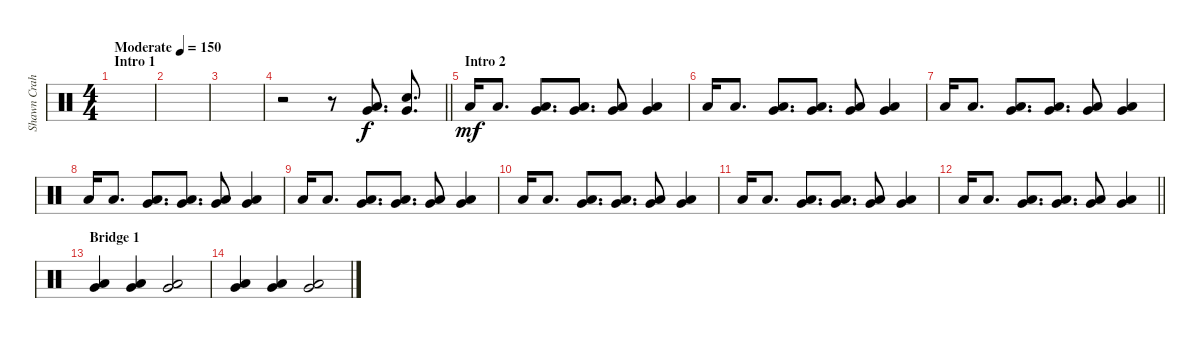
\track ("Shawn Crahan" "Shawn Crah") {instrument percussion}
\staff {score}
\articulation defaults
\ts (4 4)
\section ("" "Intro 1")
\tempo (150 "Moderate")
\clef neutral
\ks c
|
|
|
\barLineRight lightlight
r.2 r.8 ("Very Low Tom (hit)" "Low Floor Tom (hit)").8{d} ("Very Low Tom (hit)" "Snare (hit)").8{d} |
\section ("" "Intro 2")
"Low Floor Tom (hit)".16{dy mf} "Low Floor Tom (hit)".8{d} ("Very Low Tom (hit)" "Low Floor Tom (hit)").8{d} ("Very Low Tom (hit)" "Low Floor Tom (hit)").8{d} ("Very Low Tom (hit)" "Low Floor Tom (hit)").8 ("Very Low Tom (hit)" "Low Floor Tom (hit)").4 |
"Low Floor Tom (hit)".16 "Low Floor Tom (hit)".8{d} ("Very Low Tom (hit)" "Low Floor Tom (hit)").8{d} ("Very Low Tom (hit)" "Low Floor Tom (hit)").8{d} ("Very Low Tom (hit)" "Low Floor Tom (hit)").8 ("Very Low Tom (hit)" "Low Floor Tom (hit)").4 |
"Low Floor Tom (hit)".16 "Low Floor Tom (hit)".8{d} ("Very Low Tom (hit)" "Low Floor Tom (hit)").8{d} ("Very Low Tom (hit)" "Low Floor Tom (hit)").8{d} ("Very Low Tom (hit)" "Low Floor Tom (hit)").8 ("Very Low Tom (hit)" "Low Floor Tom (hit)").4 |
"Low Floor Tom (hit)".16 "Low Floor Tom (hit)".8{d} ("Very Low Tom (hit)" "Low Floor Tom (hit)").8{d} ("Very Low Tom (hit)" "Low Floor Tom (hit)").8{d} ("Very Low Tom (hit)" "Low Floor Tom (hit)").8 ("Very Low Tom (hit)" "Low Floor Tom (hit)").4 |
"Low Floor Tom (hit)".16 "Low Floor Tom (hit)".8{d} ("Very Low Tom (hit)" "Low Floor Tom (hit)").8{d} ("Very Low Tom (hit)" "Low Floor Tom (hit)").8{d} ("Very Low Tom (hit)" "Low Floor Tom (hit)").8 ("Very Low Tom (hit)" "Low Floor Tom (hit)").4 |
"Low Floor Tom (hit)".16 "Low Floor Tom (hit)".8{d} ("Very Low Tom (hit)" "Low Floor Tom (hit)").8{d} ("Very Low Tom (hit)" "Low Floor Tom (hit)").8{d} ("Very Low Tom (hit)" "Low Floor Tom (hit)").8 ("Very Low Tom (hit)" "Low Floor Tom (hit)").4 |
"Low Floor Tom (hit)".16 "Low Floor Tom (hit)".8{d} ("Very Low Tom (hit)" "Low Floor Tom (hit)").8{d} ("Very Low Tom (hit)" "Low Floor Tom (hit)").8{d} ("Very Low Tom (hit)" "Low Floor Tom (hit)").8 ("Very Low Tom (hit)" "Low Floor Tom (hit)").4 |
\barLineRight lightlight "Low Floor Tom (hit)".16 "Low Floor Tom (hit)".8{d}
("Very Low Tom (hit)" "Low Floor Tom (hit)").8{d} ("Very Low Tom (hit)" "Low Floor Tom (hit)").8{d} ("Very Low Tom (hit)" "Low Floor Tom (hit)").8 ("Very Low Tom (hit)" "Low Floor Tom (hit)").4 |
\section ("" "Bridge 1")
("Very Low Tom (hit)" "Low Floor Tom (hit)").4 ("Very Low Tom (hit)" "Low Floor Tom (hit)").4 ("Very Low Tom (hit)" "Low Floor Tom (hit)").2 |
("Very Low Tom (hit)" "Low Floor Tom (hit)").4 ("Very Low Tom (hit)" "Low Floor Tom (hit)").4 ("Very Low Tom (hit)" "Low Floor Tom (hit)").2
